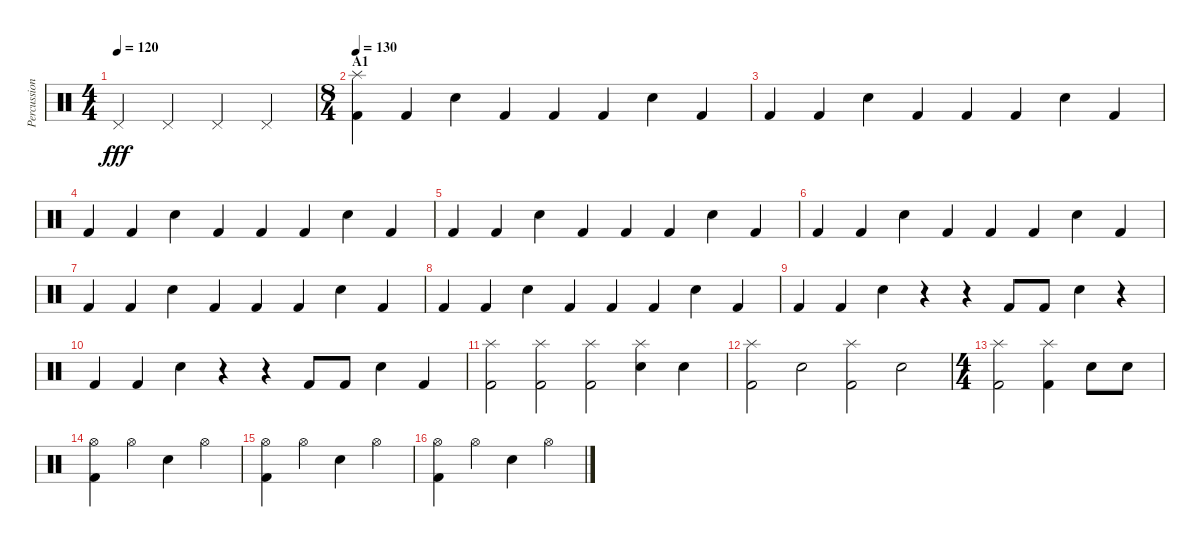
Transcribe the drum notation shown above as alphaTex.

\track ("Percussion" "Percussion") {instrument percussion}
\staff {score}
\articulation defaults
\ts (4 4)
\tempo 120
\tempo 135
\tempo 120
\clef neutral
\ks c "Pedal Hi-Hat (hit)".4{dy fff} "Pedal Hi-Hat (hit)".4 "Pedal Hi-Hat (hit)".4 "Pedal Hi-Hat (hit)".4
|
\ts (8 4)
\section ("" "A1")
\tempo 130
("Kick (hit) 2" "Splash (hit)").4 "Kick (hit) 2".4 "Electric Snare (hit)".4 "Kick (hit) 2".4 "Kick (hit) 2".4 "Kick (hit) 2".4 "Electric Snare (hit)".4 "Kick (hit) 2".4 |
"Kick (hit) 2".4 "Kick (hit) 2".4 "Electric Snare (hit)".4 "Kick (hit) 2".4 "Kick (hit) 2".4 "Kick (hit) 2".4 "Electric Snare (hit)".4 "Kick (hit) 2".4 |
"Kick (hit) 2".4 "Kick (hit) 2".4 "Electric Snare (hit)".4 "Kick (hit) 2".4 "Kick (hit) 2".4 "Kick (hit) 2".4 "Electric Snare (hit)".4 "Kick (hit) 2".4 |
"Kick (hit) 2".4 "Kick (hit) 2".4 "Electric Snare (hit)".4 "Kick (hit) 2".4 "Kick (hit) 2".4 "Kick (hit) 2".4 "Electric Snare (hit)".4 "Kick (hit) 2".4 |
"Kick (hit) 2".4 "Kick (hit) 2".4 "Electric Snare (hit)".4 "Kick (hit) 2".4 "Kick (hit) 2".4 "Kick (hit) 2".4 "Electric Snare (hit)".4 "Kick (hit) 2".4 |
"Kick (hit) 2".4 "Kick (hit) 2".4 "Electric Snare (hit)".4 "Kick (hit) 2".4 "Kick (hit) 2".4 "Kick (hit) 2".4 "Electric Snare (hit)".4 "Kick (hit) 2".4 |
"Kick (hit) 2".4 "Kick (hit) 2".4 "Electric Snare (hit)".4 "Kick (hit) 2".4 "Kick (hit) 2".4 "Kick (hit) 2".4 "Electric Snare (hit)".4 "Kick (hit) 2".4 |
"Kick (hit) 2".4 "Kick (hit) 2".4 "Electric Snare (hit)".4 r.4 r.4 "Kick (hit) 2".8 "Kick (hit) 2".8 "Electric Snare (hit)".4 r.4 |
"Kick (hit) 2".4 "Kick (hit) 2".4 "Electric Snare (hit)".4 r.4 r.4 "Kick (hit) 2".8 "Kick (hit) 2".8 "Electric Snare (hit)".4 "Kick (hit) 2".4 |
("Kick (hit) 2" "Splash (hit)").2 ("Kick (hit) 2" "Splash (hit)").2 ("Kick (hit) 2" "Splash (hit)").2 ("Electric Snare (hit)" "Splash (hit)").4 "Electric Snare (hit)".4 |
("Kick (hit) 2" "Splash (hit)").2 "Electric Snare (hit)".2 ("Kick (hit) 2" "Splash (hit)").2 "Electric Snare (hit)".2 |
\ts (4 4)
("Kick (hit) 2" "Splash (hit)").2 ("Kick (hit) 2" "Splash (hit)").4 "Electric Snare (hit)".8 "Electric Snare (hit)".8 |
("Kick (hit) 2" "Hi-Hat (open)").4 "Hi-Hat (open)".4 "Electric Snare (hit)".4 "Hi-Hat (open)".4 |
("Kick (hit) 2" "Hi-Hat (open)").4 "Hi-Hat (open)".4 "Electric Snare (hit)".4 "Hi-Hat (open)".4 |
("Kick (hit) 2" "Hi-Hat (open)").4 "Hi-Hat (open)".4 "Electric Snare (hit)".4 "Hi-Hat (open)".4
